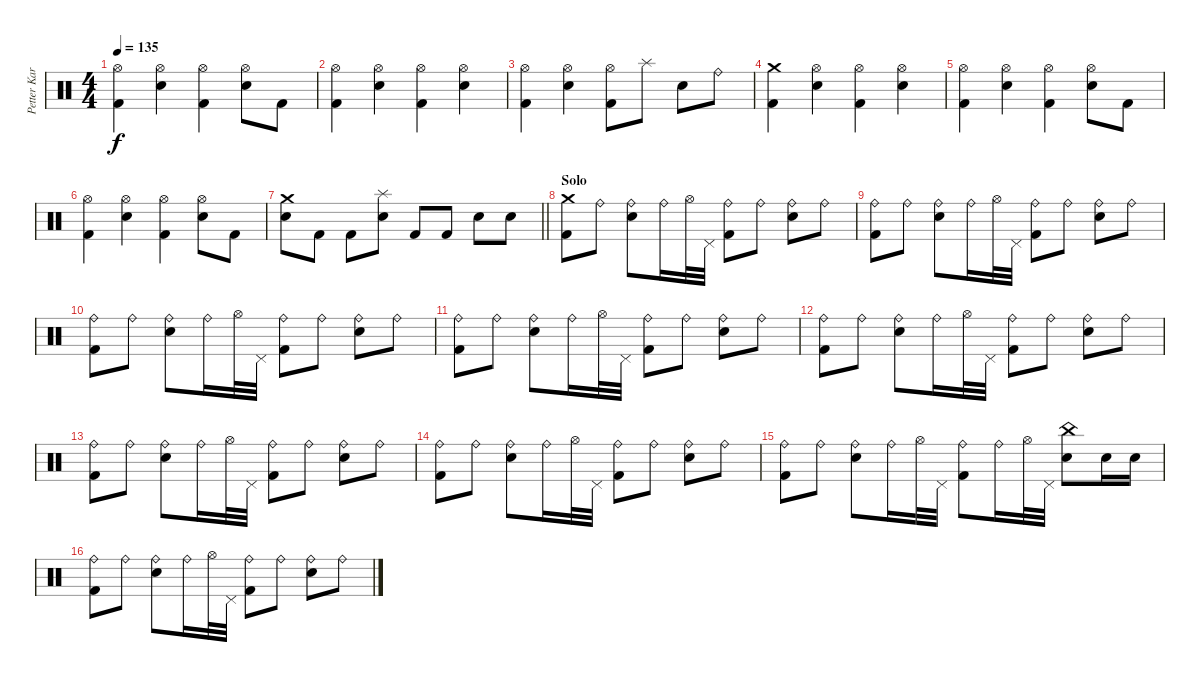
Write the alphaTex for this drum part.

\track ("Petter Karlsson" "Petter Kar") {instrument percussion}
\staff {score}
\articulation defaults
\ts (4 4)
\tempo 135
\clef neutral
\ks c
("Hi-Hat (open)" "Kick (hit) 2").4{dy f} ("Hi-Hat (open)" "Electric Snare (hit)").4 ("Hi-Hat (open)" "Kick (hit) 2").4 ("Hi-Hat (open)" "Electric Snare (hit)").8 "Kick (hit) 2".8 |
("Hi-Hat (open)" "Kick (hit) 2").4 ("Hi-Hat (open)" "Electric Snare (hit)").4 ("Hi-Hat (open)" "Kick (hit) 2").4 ("Hi-Hat (open)" "Electric Snare (hit)").4 |
("Hi-Hat (open)" "Kick (hit) 2").4 ("Hi-Hat (open)" "Electric Snare (hit)").4 ("Hi-Hat (open)" "Kick (hit) 2").8 "Splash (hit)".8 "Electric Snare (hit)".8 "Ride (bell)".8 |
("Crash medium (hit)" "Kick (hit) 2").4 ("Hi-Hat (open)" "Electric Snare (hit)").4 ("Hi-Hat (open)" "Kick (hit) 2").4 ("Hi-Hat (open)" "Electric Snare (hit)").4 |
("Hi-Hat (open)" "Kick (hit) 2").4 ("Hi-Hat (open)" "Electric Snare (hit)").4 ("Hi-Hat (open)" "Kick (hit) 2").4 ("Hi-Hat (open)" "Electric Snare (hit)").8 "Kick (hit) 2".8 |
("Hi-Hat (open)" "Kick (hit) 2").4 ("Hi-Hat (open)" "Electric Snare (hit)").4 ("Hi-Hat (open)" "Kick (hit) 2").4 ("Hi-Hat (open)" "Electric Snare (hit)").8 "Kick (hit) 2".8 |
\barLineRight lightlight
("Crash medium (hit)" "Electric Snare (hit)").8 "Kick (hit) 2".8 "Kick (hit) 2".8 ("Splash (hit)" "Electric Snare (hit)").8 "Kick (hit) 2".8 "Kick (hit) 2".8 "Electric Snare (hit)".8 "Electric Snare (hit)".8 |
\section ("" "Solo")
("Crash medium (hit)" "Kick (hit) 2").8 "Ride (bell)".8 ("Ride (bell)" "Electric Snare (hit)").8 "Ride (bell)".16 "Hi-Hat (open)".32 "Pedal Hi-Hat (hit)".32 ("Ride (bell)" "Kick (hit) 2").8 "Ride (bell)".8 ("Ride (bell)" "Electric Snare (hit)").8 "Ride (bell)".8 |
("Ride (bell)" "Kick (hit) 2").8 "Ride (bell)".8 ("Ride (bell)" "Electric Snare (hit)").8 "Ride (bell)".16 "Hi-Hat (open)".32 "Pedal Hi-Hat (hit)".32 ("Ride (bell)" "Kick (hit) 2").8 "Ride (bell)".8 ("Ride (bell)" "Electric Snare (hit)").8 "Ride (bell)".8 |
("Ride (bell)" "Kick (hit) 2").8 "Ride (bell)".8 ("Ride (bell)" "Electric Snare (hit)").8 "Ride (bell)".16 "Hi-Hat (open)".32 "Pedal Hi-Hat (hit)".32 ("Ride (bell)" "Kick (hit) 2").8 "Ride (bell)".8 ("Ride (bell)" "Electric Snare (hit)").8 "Ride (bell)".8 |
("Ride (bell)" "Kick (hit) 2").8 "Ride (bell)".8 ("Ride (bell)" "Electric Snare (hit)").8 "Ride (bell)".16 "Hi-Hat (open)".32 "Pedal Hi-Hat (hit)".32 ("Ride (bell)" "Kick (hit) 2").8 "Ride (bell)".8 ("Ride (bell)" "Electric Snare (hit)").8 "Ride (bell)".8 |
("Ride (bell)" "Kick (hit) 2").8 "Ride (bell)".8 ("Ride (bell)" "Electric Snare (hit)").8 "Ride (bell)".16 "Hi-Hat (open)".32 "Pedal Hi-Hat (hit)".32 ("Ride (bell)" "Kick (hit) 2").8 "Ride (bell)".8 ("Ride (bell)" "Electric Snare (hit)").8 "Ride (bell)".8 |
("Ride (bell)" "Kick (hit) 2").8 "Ride (bell)".8 ("Ride (bell)" "Electric Snare (hit)").8 "Ride (bell)".16 "Hi-Hat (open)".32 "Pedal Hi-Hat (hit)".32 ("Ride (bell)" "Kick (hit) 2").8 "Ride (bell)".8 ("Ride (bell)" "Electric Snare (hit)").8 "Ride (bell)".8 |
("Ride (bell)" "Kick (hit) 2").8 "Ride (bell)".8 ("Ride (bell)" "Electric Snare (hit)").8 "Ride (bell)".16 "Hi-Hat (open)".32 "Pedal Hi-Hat (hit)".32 ("Ride (bell)" "Kick (hit) 2").8 "Ride (bell)".8 ("Ride (bell)" "Electric Snare (hit)").8 "Ride (bell)".8 |
("Ride (bell)" "Kick (hit) 2").8 "Ride (bell)".8 ("Ride (bell)" "Electric Snare (hit)").8 "Ride (bell)".16 "Hi-Hat (open)".32 "Pedal Hi-Hat (hit)".32 ("Ride (bell)" "Kick (hit) 2").8 "Ride (bell)".16 "Hi-Hat (open)".32 "Pedal Hi-Hat (hit)".32 ("China (hit)" "Electric Snare (hit)").8 "Electric Snare (hit)".16 "Electric Snare (hit)".16 |
("Ride (bell)" "Kick (hit) 2").8 "Ride (bell)".8 ("Ride (bell)" "Electric Snare (hit)").8 "Ride (bell)".16 "Hi-Hat (open)".32 "Pedal Hi-Hat (hit)".32 ("Ride (bell)" "Kick (hit) 2").8 "Ride (bell)".8 ("Ride (bell)" "Electric Snare (hit)").8 "Ride (bell)".8
